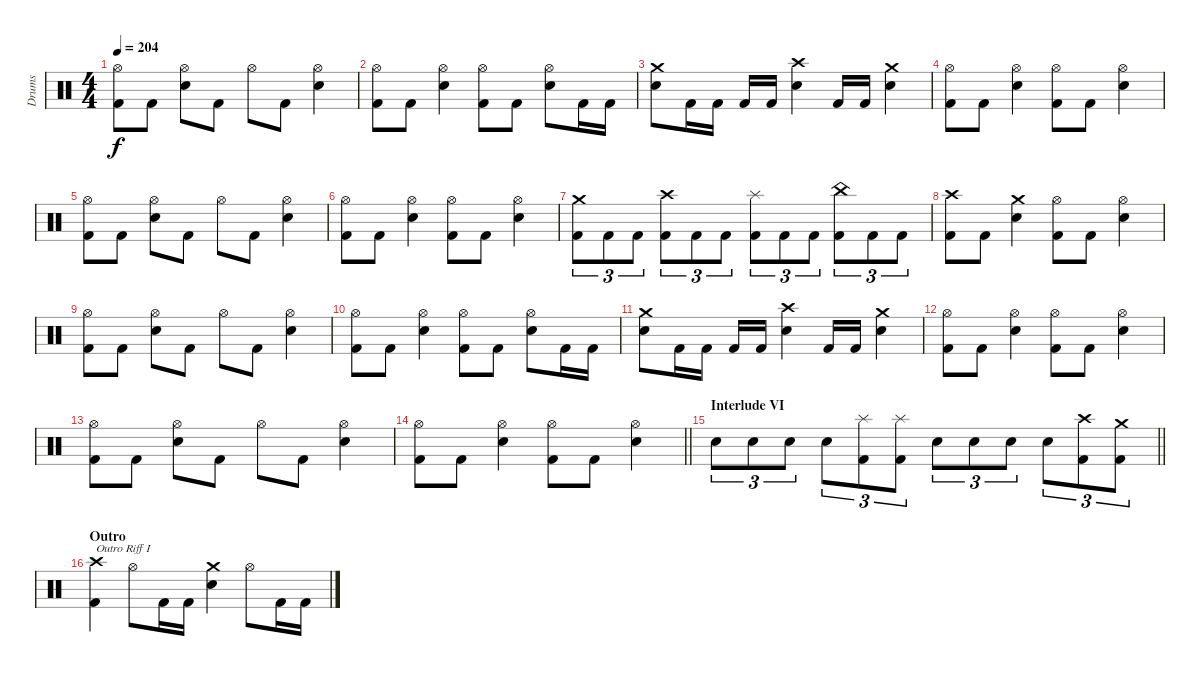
\track ("Drums" "Drums") {instrument percussion}
\staff {score}
\articulation defaults
\ts (4 4)
\tempo 204
\clef neutral
\ks c
("Hi-Hat (open)" "Kick (hit) 2").8{dy f} "Kick (hit) 2".8 ("Hi-Hat (open)" "Electric Snare (hit)").8 "Kick (hit) 2".8 "Hi-Hat (open)".8 "Kick (hit) 2".8 ("Hi-Hat (open)" "Electric Snare (hit)").4 |
("Hi-Hat (open)" "Kick (hit) 2").8 "Kick (hit) 2".8 ("Hi-Hat (open)" "Electric Snare (hit)").4 ("Hi-Hat (open)" "Kick (hit) 2").8 "Kick (hit) 2".8 ("Hi-Hat (open)" "Electric Snare (hit)").8 "Kick (hit) 2".16 "Kick (hit) 2".16 |
("Crash medium (hit)" "Electric Snare (hit)").8 "Kick (hit) 2".16 "Kick (hit) 2".16 "Kick (hit) 2".16 "Kick (hit) 2".16 ("Crash high (hit)" "Electric Snare (hit)").4 "Kick (hit) 2".16 "Kick (hit) 2".16 ("Crash medium (hit)" "Electric Snare (hit)").4 |
("Hi-Hat (open)" "Kick (hit) 2").8 "Kick (hit) 2".8 ("Hi-Hat (open)" "Electric Snare (hit)").4 ("Hi-Hat (open)" "Kick (hit) 2").8 "Kick (hit) 2".8 ("Hi-Hat (open)" "Electric Snare (hit)").4 |
("Hi-Hat (open)" "Kick (hit) 2").8 "Kick (hit) 2".8 ("Hi-Hat (open)" "Electric Snare (hit)").8 "Kick (hit) 2".8 "Hi-Hat (open)".8 "Kick (hit) 2".8 ("Hi-Hat (open)" "Electric Snare (hit)").4 |
("Hi-Hat (open)" "Kick (hit) 2").8 "Kick (hit) 2".8 ("Hi-Hat (open)" "Electric Snare (hit)").4 ("Hi-Hat (open)" "Kick (hit) 2").8 "Kick (hit) 2".8 ("Hi-Hat (open)" "Electric Snare (hit)").4 |
("Crash medium (hit)" "Kick (hit) 2").8{tu (3 2)} "Kick (hit) 2".8{tu (3 2)} "Kick (hit) 2".8{tu (3 2)} ("Crash high (hit)" "Kick (hit) 2").8{tu (3 2)} "Kick (hit) 2".8{tu (3 2)} "Kick (hit) 2".8{tu (3 2)} ("Splash (hit)" "Kick (hit) 2").8{tu (3 2)} "Kick (hit) 2".8{tu (3 2)} "Kick (hit) 2".8{tu (3 2)} ("China (hit)" "Kick (hit) 2").8{tu (3 2)} "Kick (hit) 2".8{tu (3 2)} "Kick (hit) 2".8{tu (3 2)} |
("Crash high (hit)" "Kick (hit) 2").8 "Kick (hit) 2".8 ("Crash medium (hit)" "Electric Snare (hit)").4 ("Hi-Hat (open)" "Kick (hit) 2").8 "Kick (hit) 2".8 ("Hi-Hat (open)" "Electric Snare (hit)").4 |
("Hi-Hat (open)" "Kick (hit) 2").8 "Kick (hit) 2".8 ("Hi-Hat (open)" "Electric Snare (hit)").8 "Kick (hit) 2".8 "Hi-Hat (open)".8 "Kick (hit) 2".8 ("Hi-Hat (open)" "Electric Snare (hit)").4 |
("Hi-Hat (open)" "Kick (hit) 2").8 "Kick (hit) 2".8 ("Hi-Hat (open)" "Electric Snare (hit)").4 ("Hi-Hat (open)" "Kick (hit) 2").8 "Kick (hit) 2".8 ("Hi-Hat (open)" "Electric Snare (hit)").8 "Kick (hit) 2".16 "Kick (hit) 2".16 |
("Crash medium (hit)" "Electric Snare (hit)").8 "Kick (hit) 2".16 "Kick (hit) 2".16 "Kick (hit) 2".16 "Kick (hit) 2".16 ("Crash high (hit)" "Electric Snare (hit)").4 "Kick (hit) 2".16 "Kick (hit) 2".16 ("Crash medium (hit)" "Electric Snare (hit)").4 |
("Hi-Hat (open)" "Kick (hit) 2").8 "Kick (hit) 2".8 ("Hi-Hat (open)" "Electric Snare (hit)").4 ("Hi-Hat (open)" "Kick (hit) 2").8 "Kick (hit) 2".8 ("Hi-Hat (open)" "Electric Snare (hit)").4 |
("Hi-Hat (open)" "Kick (hit) 2").8 "Kick (hit) 2".8 ("Hi-Hat (open)" "Electric Snare (hit)").8 "Kick (hit) 2".8 "Hi-Hat (open)".8 "Kick (hit) 2".8 ("Hi-Hat (open)" "Electric Snare (hit)").4 |
\barLineRight lightlight
("Hi-Hat (open)" "Kick (hit) 2").8 "Kick (hit) 2".8 ("Hi-Hat (open)" "Electric Snare (hit)").4 ("Hi-Hat (open)" "Kick (hit) 2").8 "Kick (hit) 2".8 ("Hi-Hat (open)" "Electric Snare (hit)").4 |
\section ("" "Interlude VI")
\barLineRight lightlight "Electric Snare (hit)".8{tu (3 2)} "Electric Snare (hit)".8{tu (3 2)} "Electric Snare (hit)".8{tu (3 2)} "Electric Snare (hit)".8{tu (3 2)}
("Splash (hit)" "Kick (hit) 2").8{tu (3 2)} ("Splash (hit)" "Kick (hit) 2").8{tu (3 2)} "Electric Snare (hit)".8{tu (3 2)} "Electric Snare (hit)".8{tu (3 2)} "Electric Snare (hit)".8{tu (3 2)} "Electric Snare (hit)".8{tu (3 2)} ("Crash high (hit)" "Kick (hit) 2").8{tu (3 2)} ("Crash medium (hit)" "Kick (hit) 2").8{tu (3 2)} |
\section ("" "Outro")
("Crash high (hit)" "Kick (hit) 2").4{txt "Outro Riff I"} "Hi-Hat (open)".8 "Kick (hit) 2".16 "Kick (hit) 2".16 ("Crash medium (hit)" "Electric Snare (hit)").4 "Hi-Hat (open)".8 "Kick (hit) 2".16 "Kick (hit) 2".16
